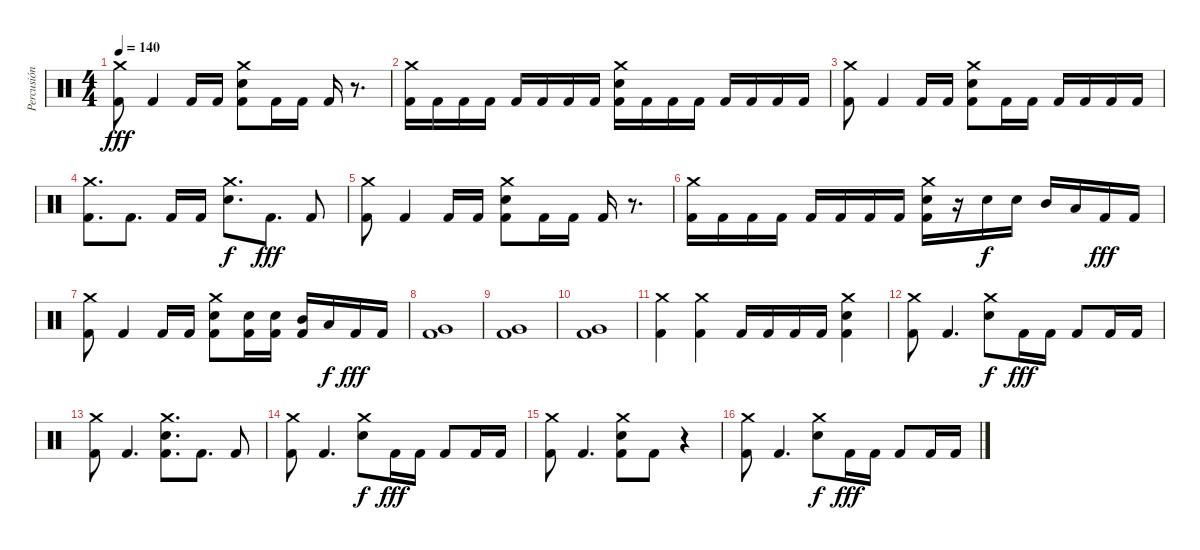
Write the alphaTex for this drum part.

\track ("Percusión" "Percusión") {instrument percussion}
\staff {score}
\articulation defaults
\ts (4 4)
\tempo 140
\clef neutral
\ks c
("Crash medium (hit)" "Kick (hit) 2").8{dy fff} "Kick (hit) 2".4 "Kick (hit) 2".16 "Kick (hit) 2".16 ("Crash medium (hit)" "Electric Snare (hit)" "Kick (hit) 2").8 "Kick (hit) 2".16 "Kick (hit) 2".16 "Kick (hit) 2".16 r.8{d} |
("Crash medium (hit)" "Kick (hit) 2").16 "Kick (hit) 2".16 "Kick (hit) 2".16 "Kick (hit) 2".16 "Kick (hit) 2".16 "Kick (hit) 2".16 "Kick (hit) 2".16 "Kick (hit) 2".16 ("Crash medium (hit)" "Electric Snare (hit)" "Kick (hit) 2").16 "Kick (hit) 2".16 "Kick (hit) 2".16 "Kick (hit) 2".16 "Kick (hit) 2".16 "Kick (hit) 2".16 "Kick (hit) 2".16 "Kick (hit) 2".16 |
("Crash medium (hit)" "Kick (hit) 2").8 "Kick (hit) 2".4 "Kick (hit) 2".16 "Kick (hit) 2".16 ("Crash medium (hit)" "Electric Snare (hit)" "Kick (hit) 2").8 "Kick (hit) 2".16 "Kick (hit) 2".16 "Kick (hit) 2".16 "Kick (hit) 2".16 "Kick (hit) 2".16 "Kick (hit) 2".16 |
("Crash medium (hit)" "Kick (hit) 2").8{d} "Kick (hit) 2".8{d} "Kick (hit) 2".16 "Kick (hit) 2".16 ("Crash medium (hit)" "Electric Snare (hit)").8{d dy f} "Kick (hit) 2".8{d dy fff} "Kick (hit) 2".8 |
("Crash medium (hit)" "Kick (hit) 2").8 "Kick (hit) 2".4 "Kick (hit) 2".16 "Kick (hit) 2".16 ("Crash medium (hit)" "Electric Snare (hit)" "Kick (hit) 2").8 "Kick (hit) 2".16 "Kick (hit) 2".16 "Kick (hit) 2".16 r.8{d} |
("Crash medium (hit)" "Kick (hit) 2").16 "Kick (hit) 2".16 "Kick (hit) 2".16 "Kick (hit) 2".16 "Kick (hit) 2".16 "Kick (hit) 2".16 "Kick (hit) 2".16 "Kick (hit) 2".16 ("Crash medium (hit)" "Electric Snare (hit)" "Kick (hit) 2").16 r.16 "Electric Snare (hit)".16{dy f} "Electric Snare (hit)".16 "Mid Tom (hit)".16 "Low Tom (hit)".16 "Kick (hit) 2".16{dy fff} "Kick (hit) 2".16 |
("Crash medium (hit)" "Kick (hit) 2").8 "Kick (hit) 2".4 "Kick (hit) 2".16 "Kick (hit) 2".16 ("Crash medium (hit)" "Electric Snare (hit)" "Kick (hit) 2").8 ("Electric Snare (hit)" "Kick (hit) 2").16 ("Electric Snare (hit)" "Kick (hit) 2").16 ("Mid Tom (hit)" "Kick (hit) 2").16 "Low Tom (hit)".16{dy f} "Kick (hit) 2".16{dy fff} "Kick (hit) 2".16 |
("Very Low Tom (hit)" "Kick (hit) 2").1 |
("Very Low Tom (hit)" "Kick (hit) 2").1 |
("Very Low Tom (hit)" "Kick (hit) 2").1 |
("Crash medium (hit)" "Kick (hit) 2").4 ("Crash medium (hit)" "Kick (hit) 2").4 "Kick (hit) 2".16 "Kick (hit) 2".16 "Kick (hit) 2".16 "Kick (hit) 2".16 ("Crash medium (hit)" "Electric Snare (hit)" "Kick (hit) 2").4 |
("Crash medium (hit)" "Kick (hit) 2").8 "Kick (hit) 2".4{d} ("Crash medium (hit)" "Electric Snare (hit)").8{dy f} "Kick (hit) 2".16{dy fff} "Kick (hit) 2".16 "Kick (hit) 2".8 "Kick (hit) 2".16 "Kick (hit) 2".16 |
("Crash medium (hit)" "Kick (hit) 2").8 "Kick (hit) 2".4{d} ("Crash medium (hit)" "Electric Snare (hit)" "Kick (hit) 2").8{d} "Kick (hit) 2".8{d} "Kick (hit) 2".8 |
("Crash medium (hit)" "Kick (hit) 2").8 "Kick (hit) 2".4{d} ("Crash medium (hit)" "Electric Snare (hit)").8{dy f} "Kick (hit) 2".16{dy fff} "Kick (hit) 2".16 "Kick (hit) 2".8 "Kick (hit) 2".16 "Kick (hit) 2".16 |
("Crash medium (hit)" "Kick (hit) 2").8 "Kick (hit) 2".4{d} ("Crash medium (hit)" "Electric Snare (hit)" "Kick (hit) 2").8 "Kick (hit) 2".8 r.4 |
("Crash medium (hit)" "Kick (hit) 2").8 "Kick (hit) 2".4{d} ("Crash medium (hit)" "Electric Snare (hit)").8{dy f} "Kick (hit) 2".16{dy fff} "Kick (hit) 2".16 "Kick (hit) 2".8 "Kick (hit) 2".16 "Kick (hit) 2".16
